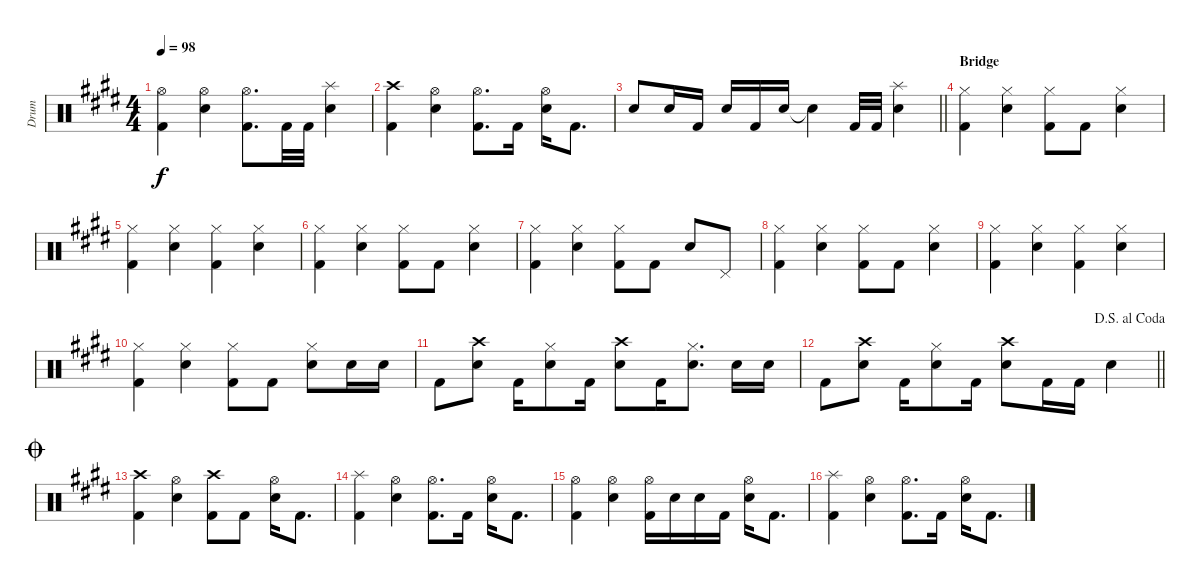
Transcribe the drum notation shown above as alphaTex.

\track ("Drum" "Drum") {instrument percussion}
\staff {score}
\articulation defaults
\ts (4 4)
\tempo 98
\clef neutral
\ks c#minor
("Kick (hit) 2" "Hi-Hat (open)").4{dy f} ("Snare (hit) 2" "Hi-Hat (open)").4 ("Kick (hit) 2" "Hi-Hat (open)").8{d} "Kick (hit) 2".32 "Kick (hit) 2".32 ("Snare (hit) 2" "Splash (hit)").4 |
("Kick (hit) 2" "Crash high (hit)").4 ("Snare (hit) 2" "Hi-Hat (open)").4 ("Kick (hit) 2" "Hi-Hat (open)").8{d} "Kick (hit) 2".16 ("Snare (hit) 2" "Hi-Hat (open)").16 "Kick (hit) 2".8{d} |
\barLineRight lightlight "Snare (hit) 2".8 "Snare (hit) 2".16 "Kick (hit) 2".16 "Snare (hit) 2".16 "Kick (hit) 2".16 "Snare (hit) 2".16 "Snare (hit) 2"{t}.4 "Kick (hit) 2".32 "Kick (hit) 2".32
("Snare (hit) 2" "Splash (hit)").4 |
\section ("" "Bridge")
("Kick (hit) 2" "Hi-Hat (closed)").4 ("Snare (hit) 2" "Hi-Hat (closed)").4 ("Kick (hit) 2" "Hi-Hat (closed)").8 "Kick (hit) 2".8 ("Snare (hit) 2" "Hi-Hat (closed)").4 |
("Kick (hit) 2" "Hi-Hat (closed)").4 ("Snare (hit) 2" "Hi-Hat (closed)").4 ("Kick (hit) 2" "Hi-Hat (closed)").4 ("Snare (hit) 2" "Hi-Hat (closed)").4 |
("Kick (hit) 2" "Hi-Hat (closed)").4 ("Snare (hit) 2" "Hi-Hat (closed)").4 ("Kick (hit) 2" "Hi-Hat (closed)").8 "Kick (hit) 2".8 ("Snare (hit) 2" "Hi-Hat (closed)").4 |
("Kick (hit) 2" "Hi-Hat (closed)").4 ("Snare (hit) 2" "Hi-Hat (closed)").4 ("Kick (hit) 2" "Hi-Hat (closed)").8 "Kick (hit) 2".8 "Snare (hit) 2".8 "Pedal Hi-Hat (hit)".8 |
("Kick (hit) 2" "Hi-Hat (closed)").4 ("Snare (hit) 2" "Hi-Hat (closed)").4 ("Kick (hit) 2" "Hi-Hat (closed)").8 "Kick (hit) 2".8 ("Snare (hit) 2" "Hi-Hat (closed)").4 |
("Kick (hit) 2" "Hi-Hat (closed)").4 ("Snare (hit) 2" "Hi-Hat (closed)").4 ("Kick (hit) 2" "Hi-Hat (closed)").4 ("Snare (hit) 2" "Hi-Hat (closed)").4 |
("Kick (hit) 2" "Hi-Hat (closed)").4 ("Snare (hit) 2" "Hi-Hat (closed)").4 ("Kick (hit) 2" "Hi-Hat (closed)").8 "Kick (hit) 2".8 ("Snare (hit) 2" "Hi-Hat (closed)").8 "Snare (hit) 2".16 "Snare (hit) 2".16 |
"Kick (hit) 2".8 ("Snare (hit) 2" "Crash high (hit)").8 "Kick (hit) 2".16 ("Snare (hit) 2" "Hi-Hat (closed)").8 "Kick (hit) 2".16 ("Snare (hit) 2" "Crash high (hit)").8 "Kick (hit) 2".16 ("Snare (hit) 2" "Hi-Hat (closed)").8{d} "Snare (hit) 2".16 "Snare (hit) 2".16 |
\jump dalsegnoalcoda
\barLineRight lightlight
\ks e "Kick (hit) 2".8
("Snare (hit) 2" "Crash high (hit)").8 "Kick (hit) 2".16 ("Snare (hit) 2" "Hi-Hat (closed)").8 "Kick (hit) 2".16 ("Snare (hit) 2" "Crash high (hit)").8 "Kick (hit) 2".16 "Kick (hit) 2".16 "Snare (hit) 2".4 |
\jump coda
\ks c#minor
("Kick (hit) 2" "Crash high (hit)").4 ("Snare (hit) 2" "Hi-Hat (open)").4 ("Kick (hit) 2" "Crash high (hit)").8 "Kick (hit) 2".8 ("Snare (hit) 2" "Hi-Hat (open)").16 "Kick (hit) 2".8{d} |
("Kick (hit) 2" "Splash (hit)").4 ("Snare (hit) 2" "Hi-Hat (open)").4 ("Kick (hit) 2" "Hi-Hat (open)").8{d} "Kick (hit) 2".16 ("Snare (hit) 2" "Hi-Hat (open)").16 "Kick (hit) 2".8{d} |
\ks e
("Kick (hit) 2" "Hi-Hat (open)").4 ("Snare (hit) 2" "Hi-Hat (open)").4 ("Kick (hit) 2" "Hi-Hat (open)").16 "Snare (hit) 2".16 "Snare (hit) 2".16 "Kick (hit) 2".16 ("Snare (hit) 2" "Hi-Hat (open)").16 "Kick (hit) 2".8{d} |
\ks c#minor
("Kick (hit) 2" "Splash (hit)").4 ("Snare (hit) 2" "Hi-Hat (open)").4 ("Kick (hit) 2" "Hi-Hat (open)").8{d} "Kick (hit) 2".16 ("Snare (hit) 2" "Hi-Hat (open)").16 "Kick (hit) 2".8{d}
